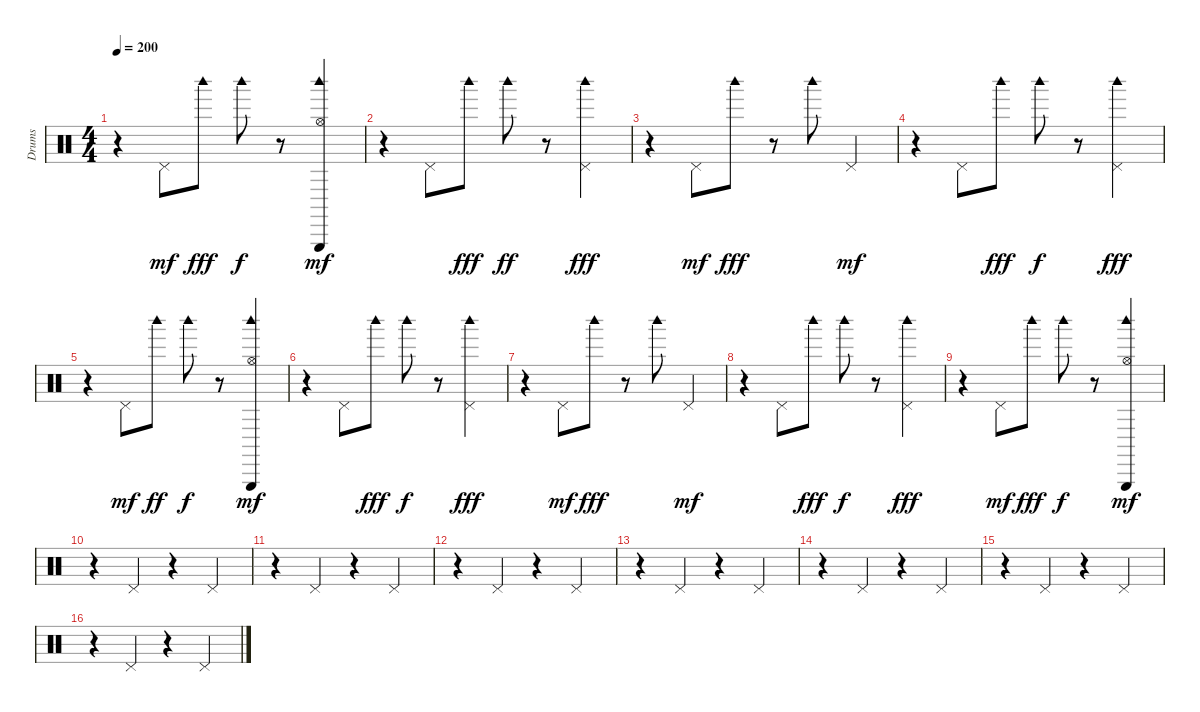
\track ("Drums" "Drums") {instrument percussion}
\staff {score}
\articulation defaults
\ts (4 4)
\tempo 200
\clef neutral
\ks c
r.4{dy fff} "Pedal Hi-Hat (hit)".8{dy mf} "Woodblock high (hit)".8{dy fff} "Woodblock high (hit)".8{dy f} r.8 ("Woodblock high (hit)" "Hi-Hat (open)" "Triangle (hit)").4{dy mf} |
r.4 "Pedal Hi-Hat (hit)".8 "Woodblock high (hit)".8{dy fff} "Woodblock high (hit)".8{dy ff} r.8 ("Pedal Hi-Hat (hit)" "Woodblock high (hit)").4{dy fff} |
r.4 "Pedal Hi-Hat (hit)".8{dy mf} "Woodblock high (hit)".8{dy fff} r.8 "Woodblock high (hit)".8 "Pedal Hi-Hat (hit)".4{dy mf} |
r.4 "Pedal Hi-Hat (hit)".8 "Woodblock high (hit)".8{dy fff} "Woodblock high (hit)".8{dy f} r.8 ("Pedal Hi-Hat (hit)" "Woodblock high (hit)").4{dy fff} |
r.4 "Pedal Hi-Hat (hit)".8{dy mf} "Woodblock high (hit)".8{dy ff} "Woodblock high (hit)".8{dy f} r.8 ("Woodblock high (hit)" "Hi-Hat (open)" "Triangle (hit)").4{dy mf} |
r.4 "Pedal Hi-Hat (hit)".8 "Woodblock high (hit)".8{dy fff} "Woodblock high (hit)".8{dy f} r.8 ("Pedal Hi-Hat (hit)" "Woodblock high (hit)").4{dy fff} |
r.4 "Pedal Hi-Hat (hit)".8{dy mf} "Woodblock high (hit)".8{dy fff} r.8 "Woodblock high (hit)".8 "Pedal Hi-Hat (hit)".4{dy mf} |
r.4 "Pedal Hi-Hat (hit)".8 "Woodblock high (hit)".8{dy fff} "Woodblock high (hit)".8{dy f} r.8 ("Pedal Hi-Hat (hit)" "Woodblock high (hit)").4{dy fff} |
r.4 "Pedal Hi-Hat (hit)".8{dy mf} "Woodblock high (hit)".8{dy fff} "Woodblock high (hit)".8{dy f} r.8 ("Woodblock high (hit)" "Hi-Hat (open)" "Triangle (hit)").4{dy mf} |
r.4 "Pedal Hi-Hat (hit)".4 r.4 "Pedal Hi-Hat (hit)".4 |
r.4 "Pedal Hi-Hat (hit)".4 r.4 "Pedal Hi-Hat (hit)".4 |
r.4 "Pedal Hi-Hat (hit)".4 r.4 "Pedal Hi-Hat (hit)".4 |
r.4 "Pedal Hi-Hat (hit)".4 r.4 "Pedal Hi-Hat (hit)".4 |
r.4 "Pedal Hi-Hat (hit)".4 r.4 "Pedal Hi-Hat (hit)".4 |
r.4 "Pedal Hi-Hat (hit)".4 r.4 "Pedal Hi-Hat (hit)".4 |
r.4 "Pedal Hi-Hat (hit)".4 r.4 "Pedal Hi-Hat (hit)".4
